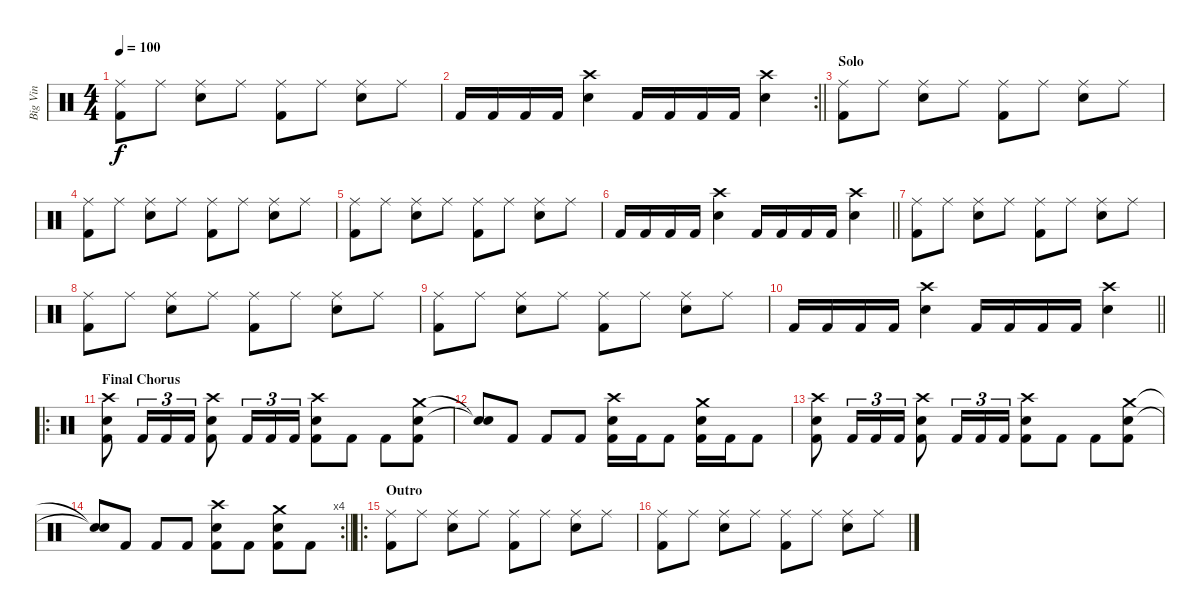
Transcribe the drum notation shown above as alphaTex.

\track ("Big Vin" "Big Vin") {instrument percussion}
\staff {score}
\articulation defaults
\ts (4 4)
\tempo 100
\clef neutral
\ks c
("Ride (middle)" "Kick (hit) 2").8{dy f} "Ride (middle)".8 ("Ride (middle)" "Electric Snare (hit)").8 "Ride (middle)".8 ("Ride (middle)" "Kick (hit) 2").8 "Ride (middle)".8 ("Ride (middle)" "Electric Snare (hit)").8 "Ride (middle)".8 |
\rc 2
\barLineRight lightlight "Kick (hit) 2".16 "Kick (hit) 2".16 "Kick (hit) 2".16 "Kick (hit) 2".16
("Crash high (hit)" "Electric Snare (hit)").4 "Kick (hit) 2".16 "Kick (hit) 2".16 "Kick (hit) 2".16 "Kick (hit) 2".16 ("Crash high (hit)" "Electric Snare (hit)").4 |
\section ("" "Solo")
("Ride (middle)" "Kick (hit) 2").8 "Ride (middle)".8 ("Ride (middle)" "Electric Snare (hit)").8 "Ride (middle)".8 ("Ride (middle)" "Kick (hit) 2").8 "Ride (middle)".8 ("Ride (middle)" "Electric Snare (hit)").8 "Ride (middle)".8 |
("Ride (middle)" "Kick (hit) 2").8 "Ride (middle)".8 ("Ride (middle)" "Electric Snare (hit)").8 "Ride (middle)".8 ("Ride (middle)" "Kick (hit) 2").8 "Ride (middle)".8 ("Ride (middle)" "Electric Snare (hit)").8 "Ride (middle)".8 |
("Ride (middle)" "Kick (hit) 2").8 "Ride (middle)".8 ("Ride (middle)" "Electric Snare (hit)").8 "Ride (middle)".8 ("Ride (middle)" "Kick (hit) 2").8 "Ride (middle)".8 ("Ride (middle)" "Electric Snare (hit)").8 "Ride (middle)".8 |
\barLineRight lightlight "Kick (hit) 2".16 "Kick (hit) 2".16 "Kick (hit) 2".16 "Kick (hit) 2".16
("Crash high (hit)" "Electric Snare (hit)").4 "Kick (hit) 2".16 "Kick (hit) 2".16 "Kick (hit) 2".16 "Kick (hit) 2".16 ("Crash high (hit)" "Electric Snare (hit)").4 |
("Ride (middle)" "Kick (hit) 2").8 "Ride (middle)".8 ("Ride (middle)" "Electric Snare (hit)").8 "Ride (middle)".8 ("Ride (middle)" "Kick (hit) 2").8 "Ride (middle)".8 ("Ride (middle)" "Electric Snare (hit)").8 "Ride (middle)".8 |
("Ride (middle)" "Kick (hit) 2").8 "Ride (middle)".8 ("Ride (middle)" "Electric Snare (hit)").8 "Ride (middle)".8 ("Ride (middle)" "Kick (hit) 2").8 "Ride (middle)".8 ("Ride (middle)" "Electric Snare (hit)").8 "Ride (middle)".8 |
("Ride (middle)" "Kick (hit) 2").8 "Ride (middle)".8 ("Ride (middle)" "Electric Snare (hit)").8 "Ride (middle)".8 ("Ride (middle)" "Kick (hit) 2").8 "Ride (middle)".8 ("Ride (middle)" "Electric Snare (hit)").8 "Ride (middle)".8 |
\barLineRight lightlight "Kick (hit) 2".16 "Kick (hit) 2".16 "Kick (hit) 2".16 "Kick (hit) 2".16
("Crash high (hit)" "Electric Snare (hit)").4 "Kick (hit) 2".16 "Kick (hit) 2".16 "Kick (hit) 2".16 "Kick (hit) 2".16 ("Crash high (hit)" "Electric Snare (hit)").4 |
\ro
\section ("" "Final Chorus")
("Crash high (hit)" "Electric Snare (hit)" "Kick (hit) 2").8 "Kick (hit) 2".16{tu (3 2)} "Kick (hit) 2".16{tu (3 2)} "Kick (hit) 2".16{tu (3 2)} ("Crash high (hit)" "Electric Snare (hit)" "Kick (hit) 2").8 "Kick (hit) 2".16{tu (3 2)} "Kick (hit) 2".16{tu (3 2)} "Kick (hit) 2".16{tu (3 2)} ("Crash high (hit)" "Electric Snare (hit)" "Kick (hit) 2").8 "Kick (hit) 2".8 "Kick (hit) 2".8 ("Crash medium (hit)" "Electric Snare (hit)" "Kick (hit) 2").8 |
("Snare (hit)"{t} "Snare (hit)"{t}).8 "Kick (hit) 2".8 "Kick (hit) 2".8 "Kick (hit) 2".8 ("Crash high (hit)" "Electric Snare (hit)" "Kick (hit) 2").16 "Kick (hit) 2".16 "Kick (hit) 2".8 ("Crash medium (hit)" "Electric Snare (hit)" "Kick (hit) 2").16 "Kick (hit) 2".16 "Kick (hit) 2".8 |
("Crash high (hit)" "Electric Snare (hit)" "Kick (hit) 2").8 "Kick (hit) 2".16{tu (3 2)} "Kick (hit) 2".16{tu (3 2)} "Kick (hit) 2".16{tu (3 2)} ("Crash high (hit)" "Electric Snare (hit)" "Kick (hit) 2").8 "Kick (hit) 2".16{tu (3 2)} "Kick (hit) 2".16{tu (3 2)} "Kick (hit) 2".16{tu (3 2)} ("Crash high (hit)" "Electric Snare (hit)" "Kick (hit) 2").8 "Kick (hit) 2".8 "Kick (hit) 2".8 ("Crash medium (hit)" "Electric Snare (hit)" "Kick (hit) 2").8 |
\rc 4
\barLineRight lightlight
("Snare (hit)"{t} "Snare (hit)"{t}).8 "Kick (hit) 2".8 "Kick (hit) 2".8 "Kick (hit) 2".8 ("Crash high (hit)" "Electric Snare (hit)" "Kick (hit) 2").8 "Kick (hit) 2".8 ("Crash medium (hit)" "Electric Snare (hit)" "Kick (hit) 2").8 "Kick (hit) 2".8 |
\ro
\section ("" "Outro")
("Ride (middle)" "Kick (hit) 2").8 "Ride (middle)".8 ("Ride (middle)" "Electric Snare (hit)").8 "Ride (middle)".8 ("Ride (middle)" "Kick (hit) 2").8 "Ride (middle)".8 ("Ride (middle)" "Electric Snare (hit)").8 "Ride (middle)".8 |
("Ride (middle)" "Kick (hit) 2").8 "Ride (middle)".8 ("Ride (middle)" "Electric Snare (hit)").8 "Ride (middle)".8 ("Ride (middle)" "Kick (hit) 2").8 "Ride (middle)".8 ("Ride (middle)" "Electric Snare (hit)").8 "Ride (middle)".8
